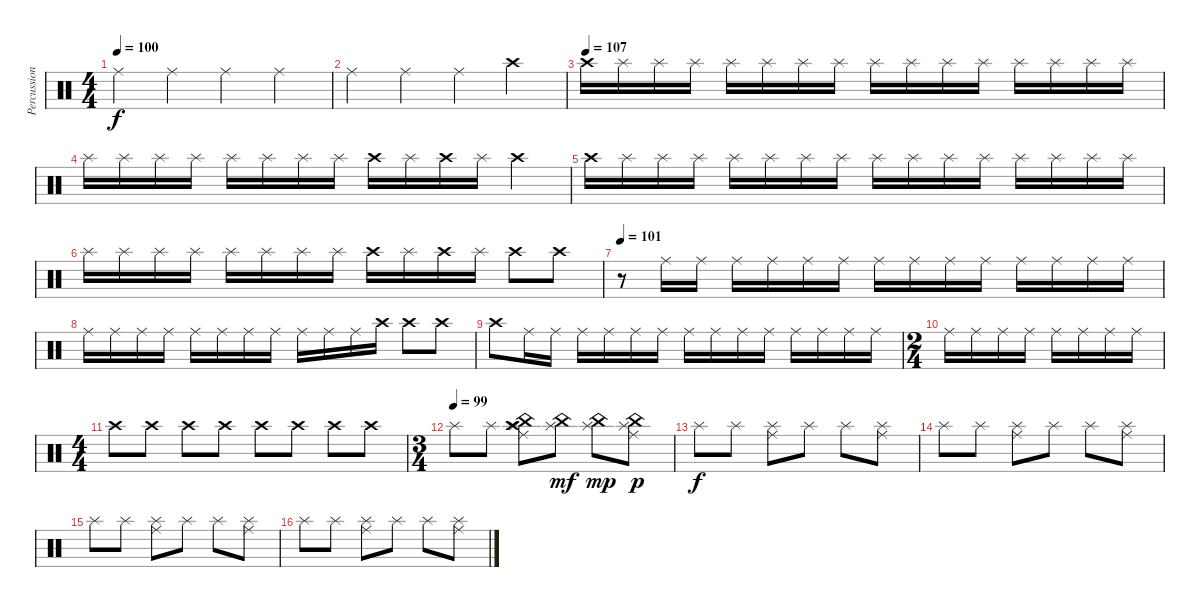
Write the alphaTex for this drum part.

\track ("Percussion2" "Percussion") {instrument percussion}
\staff {score}
\articulation defaults
\ts (4 4)
\tempo 100
\clef neutral
\ks c "Ride (middle)".4{dy f} "Ride (middle)".4 "Ride (middle)".4 "Ride (middle)".4
|
"Ride (middle)".4 "Ride (middle)".4 "Ride (middle)".4 "Crash high (hit)".4 |
\tempo (107)
"Crash high (hit)".16 "Splash (hit)".16 "Splash (hit)".16 "Splash (hit)".16 "Splash (hit)".16 "Splash (hit)".16 "Splash (hit)".16 "Splash (hit)".16 "Splash (hit)".16 "Splash (hit)".16 "Splash (hit)".16 "Splash (hit)".16 "Splash (hit)".16 "Splash (hit)".16 "Splash (hit)".16 "Splash (hit)".16 |
"Splash (hit)".16 "Splash (hit)".16 "Splash (hit)".16 "Splash (hit)".16 "Splash (hit)".16 "Splash (hit)".16 "Splash (hit)".16 "Splash (hit)".16 "Crash high (hit)".16 "Splash (hit)".16 "Crash high (hit)".16 "Splash (hit)".16 "Crash high (hit)".4 |
"Crash high (hit)".16 "Splash (hit)".16 "Splash (hit)".16 "Splash (hit)".16 "Splash (hit)".16 "Splash (hit)".16 "Splash (hit)".16 "Splash (hit)".16 "Splash (hit)".16 "Splash (hit)".16 "Splash (hit)".16 "Splash (hit)".16 "Splash (hit)".16 "Splash (hit)".16 "Splash (hit)".16 "Splash (hit)".16 |
"Splash (hit)".16 "Splash (hit)".16 "Splash (hit)".16 "Splash (hit)".16 "Splash (hit)".16 "Splash (hit)".16 "Splash (hit)".16 "Splash (hit)".16 "Crash high (hit)".16 "Splash (hit)".16 "Crash high (hit)".16 "Splash (hit)".16 "Crash high (hit)".8 "Crash high (hit)".8 |
\tempo 101
r.8 "Ride (middle)".16 "Ride (middle)".16 "Ride (middle)".16 "Ride (middle)".16 "Ride (middle)".16 "Ride (middle)".16 "Ride (middle)".16 "Ride (middle)".16 "Ride (middle)".16 "Ride (middle)".16 "Ride (middle)".16 "Ride (middle)".16 "Ride (middle)".16 "Ride (middle)".16 |
"Ride (middle)".16 "Ride (middle)".16 "Ride (middle)".16 "Ride (middle)".16 "Ride (middle)".16 "Ride (middle)".16 "Ride (middle)".16 "Ride (middle)".16 "Ride (middle)".16 "Ride (middle)".16 "Ride (middle)".16 "Crash high (hit)".16 "Crash high (hit)".8 "Crash high (hit)".8 |
"Crash high (hit)".8 "Ride (middle)".16 "Ride (middle)".16 "Ride (middle)".16 "Ride (middle)".16 "Ride (middle)".16 "Ride (middle)".16 "Ride (middle)".16 "Ride (middle)".16 "Ride (middle)".16 "Ride (middle)".16 "Ride (middle)".16 "Ride (middle)".16 "Ride (middle)".16 "Ride (middle)".16 |
\ts (2 4)
"Ride (middle)".16 "Ride (middle)".16 "Ride (middle)".16 "Ride (middle)".16 "Ride (middle)".16 "Ride (middle)".16 "Ride (middle)".16 "Ride (middle)".16 |
\ts (4 4)
"Crash high (hit)".8 "Crash high (hit)".8 "Crash high (hit)".8 "Crash high (hit)".8 "Crash high (hit)".8 "Crash high (hit)".8 "Crash high (hit)".8 "Crash high (hit)".8 |
\ts (3 4)
\tempo (99)
"Splash (hit)".8 "Splash (hit)".8 ("Ride (middle)" "Splash (hit)" "Crash high (hit)" "China (hit)").8 ("Splash (hit)" "China (hit)").8{dy mf} ("Splash (hit)" "China (hit)").8{dy mp} ("Ride (middle)" "Splash (hit)" "China (hit)").8{dy p} |
"Splash (hit)".8{dy f} "Splash (hit)".8 ("Ride (middle)" "Splash (hit)").8 "Splash (hit)".8 "Splash (hit)".8 ("Ride (middle)" "Splash (hit)").8 |
"Splash (hit)".8 "Splash (hit)".8 ("Ride (middle)" "Splash (hit)").8 "Splash (hit)".8 "Splash (hit)".8 ("Ride (middle)" "Splash (hit)").8 |
"Splash (hit)".8 "Splash (hit)".8 ("Ride (middle)" "Splash (hit)").8 "Splash (hit)".8 "Splash (hit)".8 ("Ride (middle)" "Splash (hit)").8 |
"Splash (hit)".8 "Splash (hit)".8 ("Ride (middle)" "Splash (hit)").8 "Splash (hit)".8 "Splash (hit)".8 ("Ride (middle)" "Splash (hit)").8
